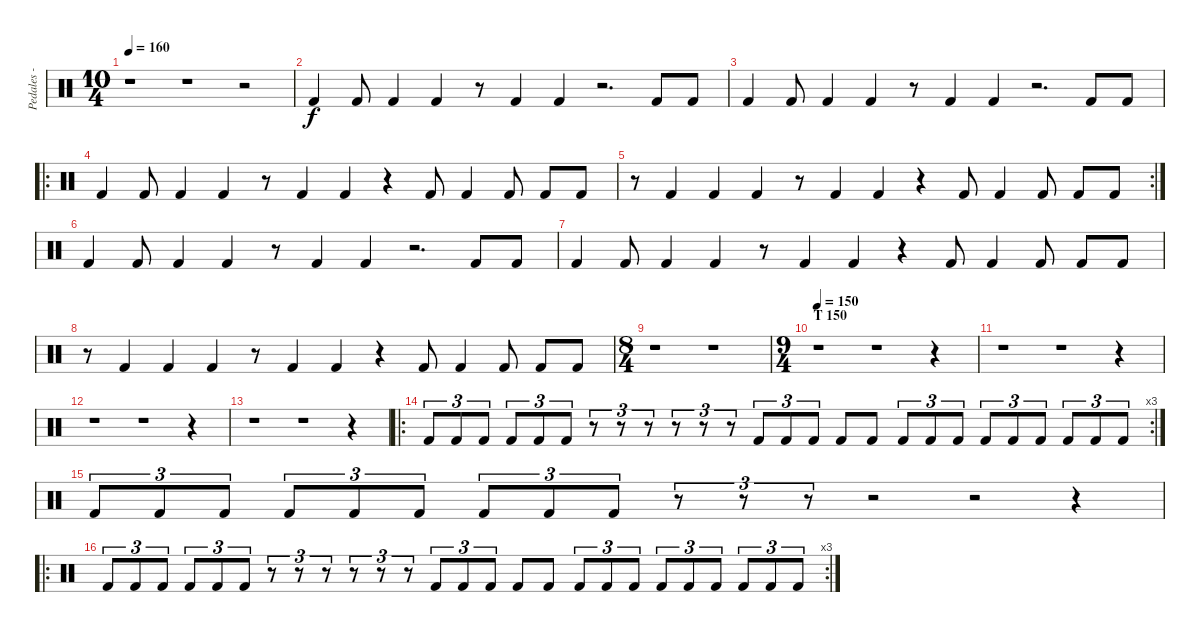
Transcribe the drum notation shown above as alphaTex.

\track ("Pedales - Compa" "Pedales - ") {instrument percussion}
\staff {score}
\articulation defaults
\ts (10 4)
\tempo 160
\clef neutral
\ks c
r.1{dy f} r.1 r.2 |
"Kick (hit) 2".4 "Kick (hit) 2".8 "Kick (hit) 2".4 "Kick (hit) 2".4 r.8 "Kick (hit) 2".4 "Kick (hit) 2".4 r.2{d} "Kick (hit) 2".8 "Kick (hit) 2".8 |
"Kick (hit) 2".4 "Kick (hit) 2".8 "Kick (hit) 2".4 "Kick (hit) 2".4 r.8 "Kick (hit) 2".4 "Kick (hit) 2".4 r.2{d} "Kick (hit) 2".8 "Kick (hit) 2".8 |
\ro "Kick (hit) 2".4 "Kick (hit) 2".8 "Kick (hit) 2".4 "Kick (hit) 2".4
r.8 "Kick (hit) 2".4 "Kick (hit) 2".4 r.4 "Kick (hit) 2".8 "Kick (hit) 2".4 "Kick (hit) 2".8 "Kick (hit) 2".8 "Kick (hit) 2".8 |
\rc 2
r.8 "Kick (hit) 2".4 "Kick (hit) 2".4 "Kick (hit) 2".4 r.8 "Kick (hit) 2".4 "Kick (hit) 2".4 r.4 "Kick (hit) 2".8 "Kick (hit) 2".4 "Kick (hit) 2".8 "Kick (hit) 2".8 "Kick (hit) 2".8 |
"Kick (hit) 2".4 "Kick (hit) 2".8 "Kick (hit) 2".4 "Kick (hit) 2".4 r.8 "Kick (hit) 2".4 "Kick (hit) 2".4 r.2{d} "Kick (hit) 2".8 "Kick (hit) 2".8 |
"Kick (hit) 2".4 "Kick (hit) 2".8 "Kick (hit) 2".4 "Kick (hit) 2".4 r.8 "Kick (hit) 2".4 "Kick (hit) 2".4 r.4 "Kick (hit) 2".8 "Kick (hit) 2".4 "Kick (hit) 2".8 "Kick (hit) 2".8 "Kick (hit) 2".8 |
r.8 "Kick (hit) 2".4 "Kick (hit) 2".4 "Kick (hit) 2".4 r.8 "Kick (hit) 2".4 "Kick (hit) 2".4 r.4 "Kick (hit) 2".8 "Kick (hit) 2".4 "Kick (hit) 2".8 "Kick (hit) 2".8 "Kick (hit) 2".8 |
\ts (8 4)
r.1 r.1 |
\ts (9 4)
\section ("" "T 150")
\tempo 150
r.1 r.1 r.4 |
r.1 r.1 r.4 |
r.1 r.1 r.4 |
r.1 r.1 r.4 |
\ro
\rc 3 "Kick (hit) 2".8{tu (3 2)} "Kick (hit) 2".8{tu (3 2)} "Kick (hit) 2".8{tu (3 2)} "Kick (hit) 2".8{tu (3 2)} "Kick (hit) 2".8{tu (3 2)} "Kick (hit) 2".8{tu (3 2)}
r.8{tu (3 2)} r.8{tu (3 2)} r.8{tu (3 2)} r.8{tu (3 2)} r.8{tu (3 2)} r.8{tu (3 2)} "Kick (hit) 2".8{tu (3 2)} "Kick (hit) 2".8{tu (3 2)} "Kick (hit) 2".8{tu (3 2)} "Kick (hit) 2".8 "Kick (hit) 2".8 "Kick (hit) 2".8{tu (3 2)} "Kick (hit) 2".8{tu (3 2)} "Kick (hit) 2".8{tu (3 2)} "Kick (hit) 2".8{tu (3 2)} "Kick (hit) 2".8{tu (3 2)} "Kick (hit) 2".8{tu (3 2)} "Kick (hit) 2".8{tu (3 2)} "Kick (hit) 2".8{tu (3 2)} "Kick (hit) 2".8{tu (3 2)} |
"Kick (hit) 2".8{tu (3 2)} "Kick (hit) 2".8{tu (3 2)} "Kick (hit) 2".8{tu (3 2)} "Kick (hit) 2".8{tu (3 2)} "Kick (hit) 2".8{tu (3 2)} "Kick (hit) 2".8{tu (3 2)} "Kick (hit) 2".8{tu (3 2)} "Kick (hit) 2".8{tu (3 2)} "Kick (hit) 2".8{tu (3 2)} r.8{tu (3 2)} r.8{tu (3 2)} r.8{tu (3 2)} r.2 r.2 r.4 |
\ro
\rc 3 "Kick (hit) 2".8{tu (3 2)} "Kick (hit) 2".8{tu (3 2)} "Kick (hit) 2".8{tu (3 2)} "Kick (hit) 2".8{tu (3 2)} "Kick (hit) 2".8{tu (3 2)} "Kick (hit) 2".8{tu (3 2)}
r.8{tu (3 2)} r.8{tu (3 2)} r.8{tu (3 2)} r.8{tu (3 2)} r.8{tu (3 2)} r.8{tu (3 2)} "Kick (hit) 2".8{tu (3 2)} "Kick (hit) 2".8{tu (3 2)} "Kick (hit) 2".8{tu (3 2)} "Kick (hit) 2".8 "Kick (hit) 2".8 "Kick (hit) 2".8{tu (3 2)} "Kick (hit) 2".8{tu (3 2)} "Kick (hit) 2".8{tu (3 2)} "Kick (hit) 2".8{tu (3 2)} "Kick (hit) 2".8{tu (3 2)} "Kick (hit) 2".8{tu (3 2)} "Kick (hit) 2".8{tu (3 2)} "Kick (hit) 2".8{tu (3 2)} "Kick (hit) 2".8{tu (3 2)}
